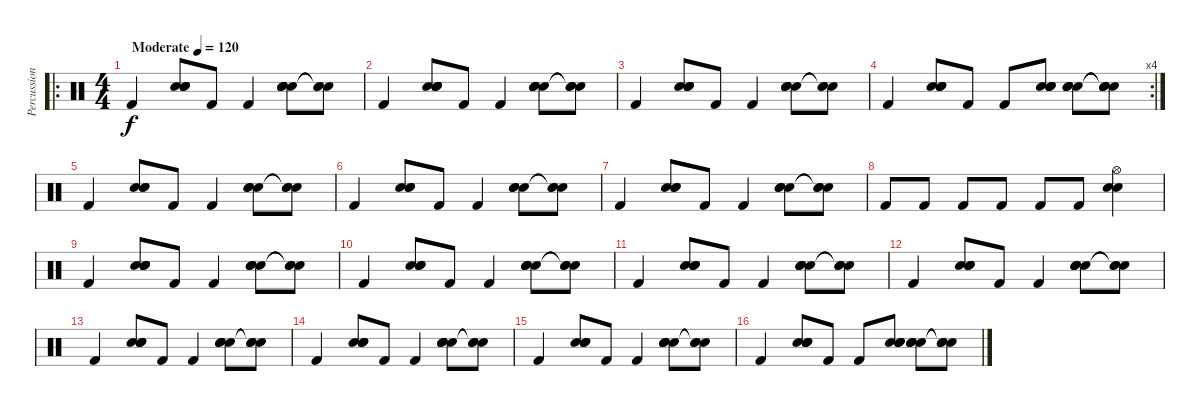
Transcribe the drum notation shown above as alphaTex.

\track ("Percussion" "Percussion") {instrument percussion}
\staff {score}
\articulation defaults
\ro
\ts (4 4)
\tempo (120 "Moderate")
\clef neutral
\ks c "Kick (hit) 2".4{dy f}
("Snare (hit) 2" "Snare (hit) 2" "Electric Snare (hit)" "Electric Snare (hit)").8 "Kick (hit) 2".8 "Kick (hit) 2".4 ("Snare (hit) 2" "Snare (hit) 2" "Electric Snare (hit)" "Electric Snare (hit)").8 ("Snare (hit)"{t} "Snare (hit)"{t} "Snare (hit)"{t}).8 |
"Kick (hit) 2".4 ("Snare (hit) 2" "Snare (hit) 2" "Electric Snare (hit)" "Electric Snare (hit)").8 "Kick (hit) 2".8 "Kick (hit) 2".4 ("Snare (hit) 2" "Snare (hit) 2" "Electric Snare (hit)" "Electric Snare (hit)").8 ("Snare (hit)"{t} "Snare (hit)"{t} "Snare (hit)"{t}).8 |
"Kick (hit) 2".4 ("Snare (hit) 2" "Snare (hit) 2" "Electric Snare (hit)" "Electric Snare (hit)").8 "Kick (hit) 2".8 "Kick (hit) 2".4 ("Snare (hit) 2" "Snare (hit) 2" "Electric Snare (hit)" "Electric Snare (hit)").8 ("Snare (hit)"{t} "Snare (hit)"{t} "Snare (hit)"{t}).8 |
\rc 4 "Kick (hit) 2".4
("Snare (hit) 2" "Snare (hit) 2" "Electric Snare (hit)" "Electric Snare (hit)").8 "Kick (hit) 2".8 "Kick (hit) 2".8 ("Snare (hit) 2" "Snare (hit) 2" "Electric Snare (hit)" "Electric Snare (hit)").8 ("Snare (hit) 2" "Snare (hit) 2" "Electric Snare (hit)" "Electric Snare (hit)").8 ("Snare (hit)"{t} "Snare (hit)"{t} "Snare (hit)"{t} "Snare (hit)"{t}).8 |
"Kick (hit) 2".4 ("Snare (hit) 2" "Snare (hit) 2" "Snare (hit) 2").8 "Kick (hit) 2".8 "Kick (hit) 2".4 ("Snare (hit) 2" "Snare (hit) 2" "Snare (hit) 2").8 ("Snare (hit)"{t} "Snare (hit)"{t} "Snare (hit)"{t}).8 |
"Kick (hit) 2".4 ("Snare (hit) 2" "Snare (hit) 2" "Snare (hit) 2").8 "Kick (hit) 2".8 "Kick (hit) 2".4 ("Snare (hit) 2" "Snare (hit) 2" "Snare (hit) 2").8 ("Snare (hit)"{t} "Snare (hit)"{t} "Snare (hit)"{t}).8 |
"Kick (hit) 2".4 ("Snare (hit) 2" "Snare (hit) 2" "Snare (hit) 2").8 "Kick (hit) 2".8 "Kick (hit) 2".4 ("Snare (hit) 2" "Snare (hit) 2" "Snare (hit) 2").8 ("Snare (hit)"{t} "Snare (hit)"{t} "Snare (hit)"{t}).8 |
"Kick (hit) 2".8 "Kick (hit) 2".8 "Kick (hit) 2".8 "Kick (hit) 2".8 "Kick (hit) 2".8 "Kick (hit) 2".8 ("Hi-Hat (open)" "Snare (hit) 2" "Electric Snare (hit)").4 |
"Kick (hit) 2".4 ("Snare (hit) 2" "Snare (hit) 2" "Electric Snare (hit)" "Electric Snare (hit)").8 "Kick (hit) 2".8 "Kick (hit) 2".4 ("Snare (hit) 2" "Snare (hit) 2" "Electric Snare (hit)" "Electric Snare (hit)").8 ("Snare (hit)"{t} "Snare (hit)"{t} "Snare (hit)"{t}).8 |
"Kick (hit) 2".4 ("Snare (hit) 2" "Snare (hit) 2" "Electric Snare (hit)" "Electric Snare (hit)").8 "Kick (hit) 2".8 "Kick (hit) 2".4 ("Snare (hit) 2" "Snare (hit) 2" "Electric Snare (hit)" "Electric Snare (hit)").8 ("Snare (hit)"{t} "Snare (hit)"{t} "Snare (hit)"{t}).8 |
"Kick (hit) 2".4 ("Snare (hit) 2" "Snare (hit) 2" "Electric Snare (hit)" "Electric Snare (hit)").8 "Kick (hit) 2".8 "Kick (hit) 2".4 ("Snare (hit) 2" "Snare (hit) 2" "Electric Snare (hit)" "Electric Snare (hit)").8 ("Snare (hit)"{t} "Snare (hit)"{t} "Snare (hit)"{t}).8 |
"Kick (hit) 2".4 ("Snare (hit) 2" "Snare (hit) 2" "Electric Snare (hit)" "Electric Snare (hit)").8 "Kick (hit) 2".8 "Kick (hit) 2".4 ("Snare (hit) 2" "Snare (hit) 2" "Electric Snare (hit)" "Electric Snare (hit)").8 ("Snare (hit)"{t} "Snare (hit)"{t} "Snare (hit)"{t}).8 |
"Kick (hit) 2".4 ("Snare (hit) 2" "Snare (hit) 2" "Electric Snare (hit)" "Electric Snare (hit)").8 "Kick (hit) 2".8 "Kick (hit) 2".4 ("Snare (hit) 2" "Snare (hit) 2" "Electric Snare (hit)" "Electric Snare (hit)").8 ("Snare (hit)"{t} "Snare (hit)"{t} "Snare (hit)"{t}).8 |
"Kick (hit) 2".4 ("Snare (hit) 2" "Snare (hit) 2" "Electric Snare (hit)" "Electric Snare (hit)").8 "Kick (hit) 2".8 "Kick (hit) 2".4 ("Snare (hit) 2" "Snare (hit) 2" "Electric Snare (hit)" "Electric Snare (hit)").8 ("Snare (hit)"{t} "Snare (hit)"{t} "Snare (hit)"{t}).8 |
"Kick (hit) 2".4 ("Snare (hit) 2" "Snare (hit) 2" "Electric Snare (hit)" "Electric Snare (hit)").8 "Kick (hit) 2".8 "Kick (hit) 2".4 ("Snare (hit) 2" "Snare (hit) 2" "Electric Snare (hit)" "Electric Snare (hit)").8 ("Snare (hit)"{t} "Snare (hit)"{t} "Snare (hit)"{t}).8 |
"Kick (hit) 2".4 ("Snare (hit) 2" "Snare (hit) 2" "Electric Snare (hit)" "Electric Snare (hit)").8 "Kick (hit) 2".8 "Kick (hit) 2".8 ("Snare (hit) 2" "Snare (hit) 2" "Electric Snare (hit)" "Electric Snare (hit)").8 ("Snare (hit) 2" "Snare (hit) 2" "Electric Snare (hit)" "Electric Snare (hit)").8 ("Snare (hit)"{t} "Snare (hit)"{t} "Snare (hit)"{t} "Snare (hit)"{t}).8
